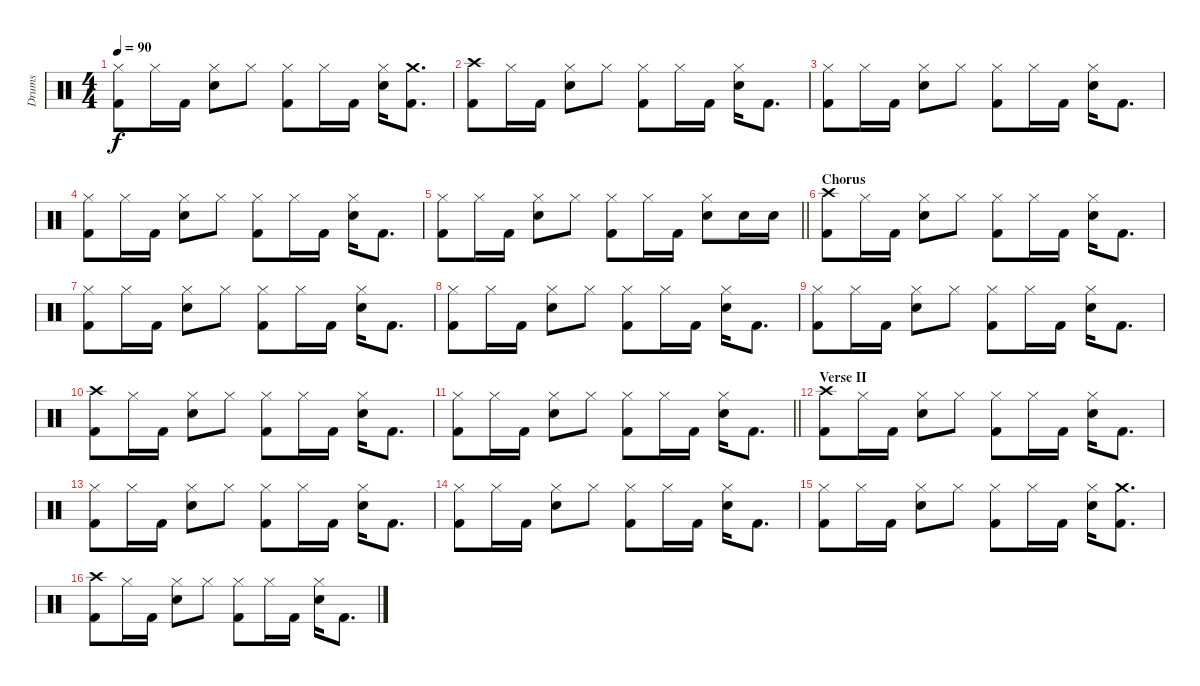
\track ("Drums" "Drums") {instrument percussion}
\staff {score}
\articulation defaults
\ts (4 4)
\tempo 90
\clef neutral
\ks c
("Hi-Hat (closed)" "Kick (hit) 2").8{dy f} "Hi-Hat (closed)".16 "Kick (hit) 2".16 ("Hi-Hat (closed)" "Snare (hit) 2").8 "Hi-Hat (closed)".8 ("Hi-Hat (closed)" "Kick (hit) 2").8 "Hi-Hat (closed)".16 "Kick (hit) 2".16 ("Hi-Hat (closed)" "Snare (hit) 2").16 ("Crash medium (hit)" "Kick (hit) 2").8{d} |
("Crash high (hit)" "Kick (hit) 2").8 "Hi-Hat (closed)".16 "Kick (hit) 2".16 ("Hi-Hat (closed)" "Snare (hit) 2").8 "Hi-Hat (closed)".8 ("Hi-Hat (closed)" "Kick (hit) 2").8 "Hi-Hat (closed)".16 "Kick (hit) 2".16 ("Hi-Hat (closed)" "Snare (hit) 2").16 "Kick (hit) 2".8{d} |
("Hi-Hat (closed)" "Kick (hit) 2").8 "Hi-Hat (closed)".16 "Kick (hit) 2".16 ("Hi-Hat (closed)" "Snare (hit) 2").8 "Hi-Hat (closed)".8 ("Hi-Hat (closed)" "Kick (hit) 2").8 "Hi-Hat (closed)".16 "Kick (hit) 2".16 ("Hi-Hat (closed)" "Snare (hit) 2").16 "Kick (hit) 2".8{d} |
("Hi-Hat (closed)" "Kick (hit) 2").8 "Hi-Hat (closed)".16 "Kick (hit) 2".16 ("Hi-Hat (closed)" "Snare (hit) 2").8 "Hi-Hat (closed)".8 ("Hi-Hat (closed)" "Kick (hit) 2").8 "Hi-Hat (closed)".16 "Kick (hit) 2".16 ("Hi-Hat (closed)" "Snare (hit) 2").16 "Kick (hit) 2".8{d} |
\barLineRight lightlight
("Hi-Hat (closed)" "Kick (hit) 2").8 "Hi-Hat (closed)".16 "Kick (hit) 2".16 ("Hi-Hat (closed)" "Snare (hit) 2").8 "Hi-Hat (closed)".8 ("Hi-Hat (closed)" "Kick (hit) 2").8 "Hi-Hat (closed)".16 "Kick (hit) 2".16 ("Hi-Hat (closed)" "Snare (hit) 2").8 "Snare (hit) 2".16 "Snare (hit) 2".16 |
\section ("" "Chorus")
("Crash high (hit)" "Kick (hit) 2").8 "Hi-Hat (closed)".16 "Kick (hit) 2".16 ("Hi-Hat (closed)" "Snare (hit) 2").8 "Hi-Hat (closed)".8 ("Hi-Hat (closed)" "Kick (hit) 2").8 "Hi-Hat (closed)".16 "Kick (hit) 2".16 ("Hi-Hat (closed)" "Snare (hit) 2").16 "Kick (hit) 2".8{d} |
("Hi-Hat (closed)" "Kick (hit) 2").8 "Hi-Hat (closed)".16 "Kick (hit) 2".16 ("Hi-Hat (closed)" "Snare (hit) 2").8 "Hi-Hat (closed)".8 ("Hi-Hat (closed)" "Kick (hit) 2").8 "Hi-Hat (closed)".16 "Kick (hit) 2".16 ("Hi-Hat (closed)" "Snare (hit) 2").16 "Kick (hit) 2".8{d} |
("Hi-Hat (closed)" "Kick (hit) 2").8 "Hi-Hat (closed)".16 "Kick (hit) 2".16 ("Hi-Hat (closed)" "Snare (hit) 2").8 "Hi-Hat (closed)".8 ("Hi-Hat (closed)" "Kick (hit) 2").8 "Hi-Hat (closed)".16 "Kick (hit) 2".16 ("Hi-Hat (closed)" "Snare (hit) 2").16 "Kick (hit) 2".8{d} |
("Hi-Hat (closed)" "Kick (hit) 2").8 "Hi-Hat (closed)".16 "Kick (hit) 2".16 ("Hi-Hat (closed)" "Snare (hit) 2").8 "Hi-Hat (closed)".8 ("Hi-Hat (closed)" "Kick (hit) 2").8 "Hi-Hat (closed)".16 "Kick (hit) 2".16 ("Hi-Hat (closed)" "Snare (hit) 2").16 "Kick (hit) 2".8{d} |
("Crash high (hit)" "Kick (hit) 2").8 "Hi-Hat (closed)".16 "Kick (hit) 2".16 ("Hi-Hat (closed)" "Snare (hit) 2").8 "Hi-Hat (closed)".8 ("Hi-Hat (closed)" "Kick (hit) 2").8 "Hi-Hat (closed)".16 "Kick (hit) 2".16 ("Hi-Hat (closed)" "Snare (hit) 2").16 "Kick (hit) 2".8{d} |
\barLineRight lightlight
("Hi-Hat (closed)" "Kick (hit) 2").8 "Hi-Hat (closed)".16 "Kick (hit) 2".16 ("Hi-Hat (closed)" "Snare (hit) 2").8 "Hi-Hat (closed)".8 ("Hi-Hat (closed)" "Kick (hit) 2").8 "Hi-Hat (closed)".16 "Kick (hit) 2".16 ("Hi-Hat (closed)" "Snare (hit) 2").16 "Kick (hit) 2".8{d} |
\section ("" "Verse II")
("Crash high (hit)" "Kick (hit) 2").8 "Hi-Hat (closed)".16 "Kick (hit) 2".16 ("Hi-Hat (closed)" "Snare (hit) 2").8 "Hi-Hat (closed)".8 ("Hi-Hat (closed)" "Kick (hit) 2").8 "Hi-Hat (closed)".16 "Kick (hit) 2".16 ("Hi-Hat (closed)" "Snare (hit) 2").16 "Kick (hit) 2".8{d} |
("Hi-Hat (closed)" "Kick (hit) 2").8 "Hi-Hat (closed)".16 "Kick (hit) 2".16 ("Hi-Hat (closed)" "Snare (hit) 2").8 "Hi-Hat (closed)".8 ("Hi-Hat (closed)" "Kick (hit) 2").8 "Hi-Hat (closed)".16 "Kick (hit) 2".16 ("Hi-Hat (closed)" "Snare (hit) 2").16 "Kick (hit) 2".8{d} |
("Hi-Hat (closed)" "Kick (hit) 2").8 "Hi-Hat (closed)".16 "Kick (hit) 2".16 ("Hi-Hat (closed)" "Snare (hit) 2").8 "Hi-Hat (closed)".8 ("Hi-Hat (closed)" "Kick (hit) 2").8 "Hi-Hat (closed)".16 "Kick (hit) 2".16 ("Hi-Hat (closed)" "Snare (hit) 2").16 "Kick (hit) 2".8{d} |
("Hi-Hat (closed)" "Kick (hit) 2").8 "Hi-Hat (closed)".16 "Kick (hit) 2".16 ("Hi-Hat (closed)" "Snare (hit) 2").8 "Hi-Hat (closed)".8 ("Hi-Hat (closed)" "Kick (hit) 2").8 "Hi-Hat (closed)".16 "Kick (hit) 2".16 ("Hi-Hat (closed)" "Snare (hit) 2").16 ("Crash medium (hit)" "Kick (hit) 2").8{d} |
("Crash high (hit)" "Kick (hit) 2").8 "Hi-Hat (closed)".16 "Kick (hit) 2".16 ("Hi-Hat (closed)" "Snare (hit) 2").8 "Hi-Hat (closed)".8 ("Hi-Hat (closed)" "Kick (hit) 2").8 "Hi-Hat (closed)".16 "Kick (hit) 2".16 ("Hi-Hat (closed)" "Snare (hit) 2").16 "Kick (hit) 2".8{d}
